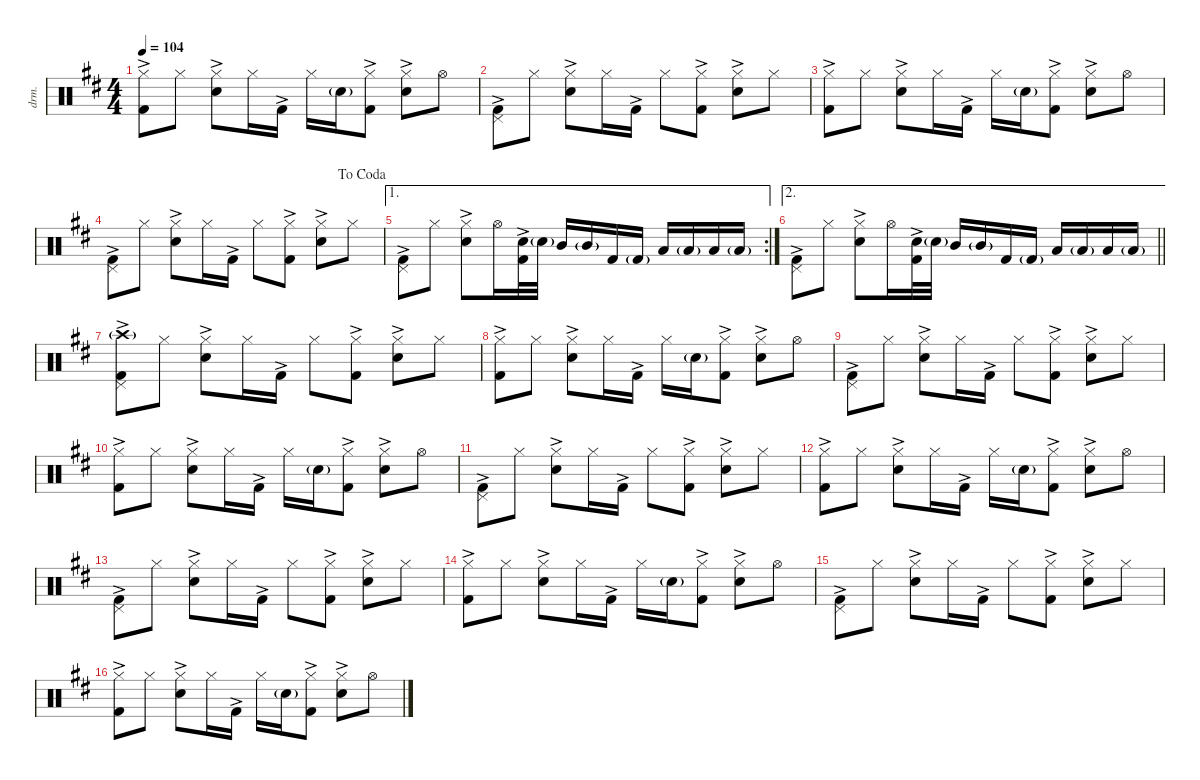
\defaultSystemsLayout 4
\hideDynamics
\bracketExtendMode nobrackets
\otherSystemsTrackNameOrientation horizontal
\track ("Drums" "drm.") {instrument percussion}
\staff {score}
\articulation defaults
\ts (4 4)
\tempo 104
\clef neutral
\ks d
("Hi-Hat (closed)"{acc forcenatural} "Kick (hit) 2"{ac acc forcenatural}).8{dy f} "Hi-Hat (closed)"{acc forcenatural}.8 ("Hi-Hat (closed)"{acc forcenatural} "Snare (hit) 2"{ac acc forcenatural}).8 "Hi-Hat (closed)"{acc forcenatural}.16 "Kick (hit) 2"{ac acc forcenatural}.16 "Hi-Hat (closed)"{acc forcenatural}.16 "Snare (hit) 2"{g acc forcenatural}.16{dy p} ("Hi-Hat (closed)"{acc forcenatural} "Kick (hit) 2"{ac acc forcenatural}).8{dy f} ("Hi-Hat (closed)"{acc forcenatural} "Snare (hit) 2"{ac acc forcenatural}).8 "Hi-Hat (open)"{acc forcenatural}.8 |
("Pedal Hi-Hat (hit)"{acc forcenatural} "Kick (hit) 2"{ac acc forcenatural}).8 "Hi-Hat (closed)"{acc forcenatural}.8 ("Hi-Hat (closed)"{acc forcenatural} "Snare (hit) 2"{ac acc forcenatural}).8 "Hi-Hat (closed)"{acc forcenatural}.16 "Kick (hit) 2"{ac acc forcenatural}.16 "Hi-Hat (closed)"{acc forcenatural}.8 ("Hi-Hat (closed)"{acc forcenatural} "Kick (hit) 2"{ac acc forcenatural}).8 ("Hi-Hat (closed)"{acc forcenatural} "Snare (hit) 2"{ac acc forcenatural}).8 "Hi-Hat (closed)"{acc forcenatural}.8 |
("Hi-Hat (closed)"{acc forcenatural} "Kick (hit) 2"{ac acc forcenatural}).8 "Hi-Hat (closed)"{acc forcenatural}.8 ("Hi-Hat (closed)"{acc forcenatural} "Snare (hit) 2"{ac acc forcenatural}).8 "Hi-Hat (closed)"{acc forcenatural}.16 "Kick (hit) 2"{ac acc forcenatural}.16 "Hi-Hat (closed)"{acc forcenatural}.16 "Snare (hit) 2"{g acc forcenatural}.16{dy p} ("Hi-Hat (closed)"{acc forcenatural} "Kick (hit) 2"{ac acc forcenatural}).8{dy f} ("Hi-Hat (closed)"{acc forcenatural} "Snare (hit) 2"{ac acc forcenatural}).8 "Hi-Hat (open)"{acc forcenatural}.8 |
\jump dacoda
("Pedal Hi-Hat (hit)"{acc forcenatural} "Kick (hit) 2"{ac acc forcenatural}).8 "Hi-Hat (closed)"{acc forcenatural}.8 ("Hi-Hat (closed)"{acc forcenatural} "Snare (hit) 2"{ac acc forcenatural}).8 "Hi-Hat (closed)"{acc forcenatural}.16 "Kick (hit) 2"{ac acc forcenatural}.16 "Hi-Hat (closed)"{acc forcenatural}.8 ("Hi-Hat (closed)"{acc forcenatural} "Kick (hit) 2"{ac acc forcenatural}).8 ("Hi-Hat (closed)"{acc forcenatural} "Snare (hit) 2"{ac acc forcenatural}).8 "Hi-Hat (closed)"{acc forcenatural}.8 |
\ae 1
\rc 2
("Pedal Hi-Hat (hit)"{acc forcenatural} "Kick (hit) 2"{ac acc forcenatural}).8 "Hi-Hat (closed)"{acc forcenatural}.8 ("Hi-Hat (closed)"{acc forcenatural} "Snare (hit) 2"{ac acc forcenatural}).8 "Hi-Hat (open)"{acc forcenatural}.16 ("Snare (hit) 2"{acc forcenatural} "Kick (hit) 2"{ac acc forcenatural}).32 "Snare (hit) 2"{g acc forcenatural}.32{dy mf} "Mid Tom (hit)"{acc forcenatural}.16{dy f} "Mid Tom (hit)"{g acc forcenatural}.16{dy mf} "Kick (hit) 2"{acc forcenatural}.16{dy f} "Kick (hit) 2"{g acc forcenatural}.16{dy mf} "Low Tom (hit)"{acc forcenatural}.16{dy f} "Low Tom (hit)"{g acc forcenatural}.16{dy mf} "Low Floor Tom (hit)"{acc forcenatural}.16{dy f} "Low Floor Tom (hit)"{g acc forcenatural}.16{dy mf} |
\ae 2
\barLineRight lightlight
("Pedal Hi-Hat (hit)"{acc forcenatural} "Kick (hit) 2"{ac acc forcenatural}).8{dy f} "Hi-Hat (closed)"{acc forcenatural}.8 ("Hi-Hat (closed)"{acc forcenatural} "Snare (hit) 2"{ac acc forcenatural}).8 "Hi-Hat (open)"{acc forcenatural}.16 ("Snare (hit) 2"{acc forcenatural} "Kick (hit) 2"{ac acc forcenatural}).32 "Snare (hit) 2"{g acc forcenatural}.32{dy mf} "Mid Tom (hit)"{acc forcenatural}.16{dy f} "Mid Tom (hit)"{g acc forcenatural}.16{dy mf} "Kick (hit) 2"{acc forcenatural}.16{dy f} "Kick (hit) 2"{g acc forcenatural}.16{dy mf} "Low Tom (hit)"{acc forcenatural}.16{dy f} "Low Tom (hit)"{g acc forcenatural}.16{dy mf} "Low Floor Tom (hit)"{acc forcenatural}.16{dy f} "Low Floor Tom (hit)"{g acc forcenatural}.16{dy mf} |
("Pedal Hi-Hat (hit)"{acc forcenatural} "Crash high (hit)"{g acc forcenatural} "Kick (hit) 2"{ac acc forcenatural}).8{dy f} "Hi-Hat (closed)"{acc forcenatural}.8 ("Hi-Hat (closed)"{acc forcenatural} "Snare (hit) 2"{ac acc forcenatural}).8 "Hi-Hat (closed)"{acc forcenatural}.16 "Kick (hit) 2"{ac acc forcenatural}.16 "Hi-Hat (closed)"{acc forcenatural}.8 ("Hi-Hat (closed)"{acc forcenatural} "Kick (hit) 2"{ac acc forcenatural}).8 ("Hi-Hat (closed)"{acc forcenatural} "Snare (hit) 2"{ac acc forcenatural}).8 "Hi-Hat (closed)"{acc forcenatural}.8 |
("Hi-Hat (closed)"{acc forcenatural} "Kick (hit) 2"{ac acc forcenatural}).8 "Hi-Hat (closed)"{acc forcenatural}.8 ("Hi-Hat (closed)"{acc forcenatural} "Snare (hit) 2"{ac acc forcenatural}).8 "Hi-Hat (closed)"{acc forcenatural}.16 "Kick (hit) 2"{ac acc forcenatural}.16 "Hi-Hat (closed)"{acc forcenatural}.16 "Snare (hit) 2"{g acc forcenatural}.16{dy p} ("Hi-Hat (closed)"{acc forcenatural} "Kick (hit) 2"{ac acc forcenatural}).8{dy f} ("Hi-Hat (closed)"{acc forcenatural} "Snare (hit) 2"{ac acc forcenatural}).8 "Hi-Hat (open)"{acc forcenatural}.8 |
("Pedal Hi-Hat (hit)"{acc forcenatural} "Kick (hit) 2"{ac acc forcenatural}).8 "Hi-Hat (closed)"{acc forcenatural}.8 ("Hi-Hat (closed)"{acc forcenatural} "Snare (hit) 2"{ac acc forcenatural}).8 "Hi-Hat (closed)"{acc forcenatural}.16 "Kick (hit) 2"{ac acc forcenatural}.16 "Hi-Hat (closed)"{acc forcenatural}.8 ("Hi-Hat (closed)"{acc forcenatural} "Kick (hit) 2"{ac acc forcenatural}).8 ("Hi-Hat (closed)"{acc forcenatural} "Snare (hit) 2"{ac acc forcenatural}).8 "Hi-Hat (closed)"{acc forcenatural}.8 |
("Hi-Hat (closed)"{acc forcenatural} "Kick (hit) 2"{ac acc forcenatural}).8 "Hi-Hat (closed)"{acc forcenatural}.8 ("Hi-Hat (closed)"{acc forcenatural} "Snare (hit) 2"{ac acc forcenatural}).8 "Hi-Hat (closed)"{acc forcenatural}.16 "Kick (hit) 2"{ac acc forcenatural}.16 "Hi-Hat (closed)"{acc forcenatural}.16 "Snare (hit) 2"{g acc forcenatural}.16{dy p} ("Hi-Hat (closed)"{acc forcenatural} "Kick (hit) 2"{ac acc forcenatural}).8{dy f} ("Hi-Hat (closed)"{acc forcenatural} "Snare (hit) 2"{ac acc forcenatural}).8 "Hi-Hat (open)"{acc forcenatural}.8 |
("Pedal Hi-Hat (hit)"{acc forcenatural} "Kick (hit) 2"{ac acc forcenatural}).8 "Hi-Hat (closed)"{acc forcenatural}.8 ("Hi-Hat (closed)"{acc forcenatural} "Snare (hit) 2"{ac acc forcenatural}).8 "Hi-Hat (closed)"{acc forcenatural}.16 "Kick (hit) 2"{ac acc forcenatural}.16 "Hi-Hat (closed)"{acc forcenatural}.8 ("Hi-Hat (closed)"{acc forcenatural} "Kick (hit) 2"{ac acc forcenatural}).8 ("Hi-Hat (closed)"{acc forcenatural} "Snare (hit) 2"{ac acc forcenatural}).8 "Hi-Hat (closed)"{acc forcenatural}.8 |
("Hi-Hat (closed)"{acc forcenatural} "Kick (hit) 2"{ac acc forcenatural}).8 "Hi-Hat (closed)"{acc forcenatural}.8 ("Hi-Hat (closed)"{acc forcenatural} "Snare (hit) 2"{ac acc forcenatural}).8 "Hi-Hat (closed)"{acc forcenatural}.16 "Kick (hit) 2"{ac acc forcenatural}.16 "Hi-Hat (closed)"{acc forcenatural}.16 "Snare (hit) 2"{g acc forcenatural}.16{dy p} ("Hi-Hat (closed)"{acc forcenatural} "Kick (hit) 2"{ac acc forcenatural}).8{dy f} ("Hi-Hat (closed)"{acc forcenatural} "Snare (hit) 2"{ac acc forcenatural}).8 "Hi-Hat (open)"{acc forcenatural}.8 |
("Pedal Hi-Hat (hit)"{acc forcenatural} "Kick (hit) 2"{ac acc forcenatural}).8 "Hi-Hat (closed)"{acc forcenatural}.8 ("Hi-Hat (closed)"{acc forcenatural} "Snare (hit) 2"{ac acc forcenatural}).8 "Hi-Hat (closed)"{acc forcenatural}.16 "Kick (hit) 2"{ac acc forcenatural}.16 "Hi-Hat (closed)"{acc forcenatural}.8 ("Hi-Hat (closed)"{acc forcenatural} "Kick (hit) 2"{ac acc forcenatural}).8 ("Hi-Hat (closed)"{acc forcenatural} "Snare (hit) 2"{ac acc forcenatural}).8 "Hi-Hat (closed)"{acc forcenatural}.8 |
("Hi-Hat (closed)"{acc forcenatural} "Kick (hit) 2"{ac acc forcenatural}).8 "Hi-Hat (closed)"{acc forcenatural}.8 ("Hi-Hat (closed)"{acc forcenatural} "Snare (hit) 2"{ac acc forcenatural}).8 "Hi-Hat (closed)"{acc forcenatural}.16 "Kick (hit) 2"{ac acc forcenatural}.16 "Hi-Hat (closed)"{acc forcenatural}.16 "Snare (hit) 2"{g acc forcenatural}.16{dy p} ("Hi-Hat (closed)"{acc forcenatural} "Kick (hit) 2"{ac acc forcenatural}).8{dy f} ("Hi-Hat (closed)"{acc forcenatural} "Snare (hit) 2"{ac acc forcenatural}).8 "Hi-Hat (open)"{acc forcenatural}.8 |
("Pedal Hi-Hat (hit)"{acc forcenatural} "Kick (hit) 2"{ac acc forcenatural}).8 "Hi-Hat (closed)"{acc forcenatural}.8 ("Hi-Hat (closed)"{acc forcenatural} "Snare (hit) 2"{ac acc forcenatural}).8 "Hi-Hat (closed)"{acc forcenatural}.16 "Kick (hit) 2"{ac acc forcenatural}.16 "Hi-Hat (closed)"{acc forcenatural}.8 ("Hi-Hat (closed)"{acc forcenatural} "Kick (hit) 2"{ac acc forcenatural}).8 ("Hi-Hat (closed)"{acc forcenatural} "Snare (hit) 2"{ac acc forcenatural}).8 "Hi-Hat (closed)"{acc forcenatural}.8 |
("Hi-Hat (closed)"{acc forcenatural} "Kick (hit) 2"{ac acc forcenatural}).8 "Hi-Hat (closed)"{acc forcenatural}.8 ("Hi-Hat (closed)"{acc forcenatural} "Snare (hit) 2"{ac acc forcenatural}).8 "Hi-Hat (closed)"{acc forcenatural}.16 "Kick (hit) 2"{ac acc forcenatural}.16 "Hi-Hat (closed)"{acc forcenatural}.16 "Snare (hit) 2"{g acc forcenatural}.16{dy p} ("Hi-Hat (closed)"{acc forcenatural} "Kick (hit) 2"{ac acc forcenatural}).8{dy f} ("Hi-Hat (closed)"{acc forcenatural} "Snare (hit) 2"{ac acc forcenatural}).8 "Hi-Hat (open)"{acc forcenatural}.8
